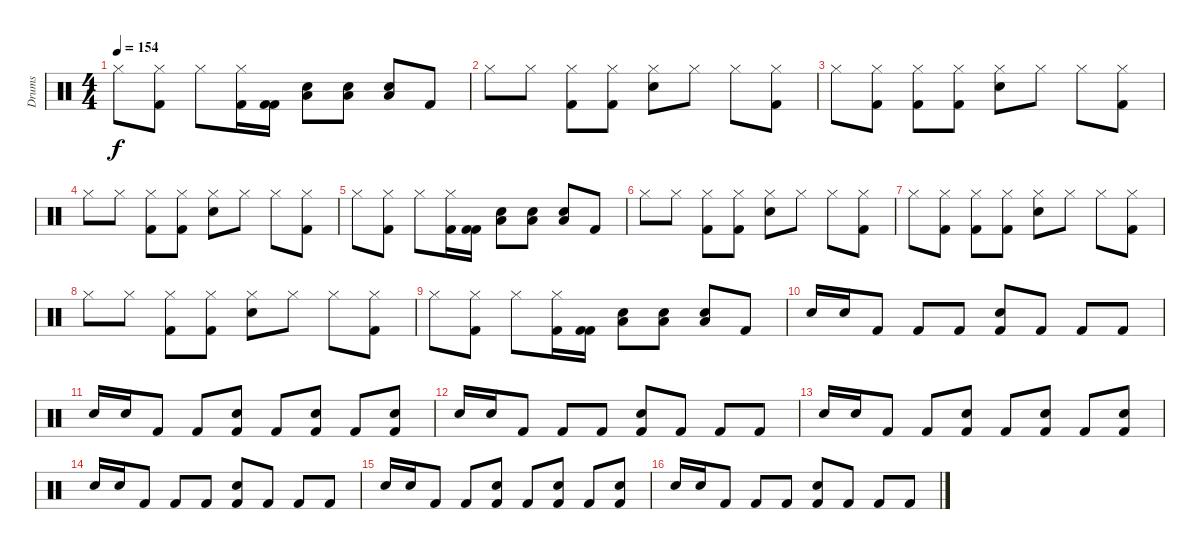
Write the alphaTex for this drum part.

\track ("Drums" "Drums") {instrument percussion}
\staff {score}
\articulation defaults
\ts (4 4)
\tempo 154
\clef neutral
\ks c "Hi-Hat (closed)".8{dy f}
("Kick (hit) 2" "Hi-Hat (closed)").8 "Hi-Hat (closed)".8 ("Kick (hit) 2" "Hi-Hat (closed)").16 ("Kick (hit) 2" "Kick (hit) 2").16 ("Snare (hit) 2" "Low Floor Tom (hit)").8 ("Snare (hit) 2" "Low Floor Tom (hit)").8 ("Snare (hit) 2" "Low Floor Tom (hit)").8 "Kick (hit) 2".8 |
"Hi-Hat (closed)".8 "Hi-Hat (closed)".8 ("Kick (hit) 2" "Hi-Hat (closed)").8 ("Kick (hit) 2" "Hi-Hat (closed)").8 ("Snare (hit) 2" "Hi-Hat (closed)").8 "Hi-Hat (closed)".8 "Hi-Hat (closed)".8 ("Kick (hit) 2" "Hi-Hat (closed)").8 |
"Hi-Hat (closed)".8 ("Kick (hit) 2" "Hi-Hat (closed)").8 ("Kick (hit) 2" "Hi-Hat (closed)").8 ("Kick (hit) 2" "Hi-Hat (closed)").8 ("Snare (hit) 2" "Hi-Hat (closed)").8 "Hi-Hat (closed)".8 "Hi-Hat (closed)".8 ("Kick (hit) 2" "Hi-Hat (closed)").8 |
"Hi-Hat (closed)".8 "Hi-Hat (closed)".8 ("Kick (hit) 2" "Hi-Hat (closed)").8 ("Kick (hit) 2" "Hi-Hat (closed)").8 ("Snare (hit) 2" "Hi-Hat (closed)").8 "Hi-Hat (closed)".8 "Hi-Hat (closed)".8 ("Kick (hit) 2" "Hi-Hat (closed)").8 |
"Hi-Hat (closed)".8 ("Kick (hit) 2" "Hi-Hat (closed)").8 "Hi-Hat (closed)".8 ("Kick (hit) 2" "Hi-Hat (closed)").16 ("Kick (hit) 2" "Kick (hit) 2").16 ("Snare (hit) 2" "Low Floor Tom (hit)").8 ("Snare (hit) 2" "Low Floor Tom (hit)").8 ("Snare (hit) 2" "Low Floor Tom (hit)").8 "Kick (hit) 2".8 |
"Hi-Hat (closed)".8 "Hi-Hat (closed)".8 ("Kick (hit) 2" "Hi-Hat (closed)").8 ("Kick (hit) 2" "Hi-Hat (closed)").8 ("Snare (hit) 2" "Hi-Hat (closed)").8 "Hi-Hat (closed)".8 "Hi-Hat (closed)".8 ("Kick (hit) 2" "Hi-Hat (closed)").8 |
"Hi-Hat (closed)".8 ("Kick (hit) 2" "Hi-Hat (closed)").8 ("Kick (hit) 2" "Hi-Hat (closed)").8 ("Kick (hit) 2" "Hi-Hat (closed)").8 ("Snare (hit) 2" "Hi-Hat (closed)").8 "Hi-Hat (closed)".8 "Hi-Hat (closed)".8 ("Kick (hit) 2" "Hi-Hat (closed)").8 |
"Hi-Hat (closed)".8 "Hi-Hat (closed)".8 ("Kick (hit) 2" "Hi-Hat (closed)").8 ("Kick (hit) 2" "Hi-Hat (closed)").8 ("Snare (hit) 2" "Hi-Hat (closed)").8 "Hi-Hat (closed)".8 "Hi-Hat (closed)".8 ("Kick (hit) 2" "Hi-Hat (closed)").8 |
"Hi-Hat (closed)".8 ("Kick (hit) 2" "Hi-Hat (closed)").8 "Hi-Hat (closed)".8 ("Kick (hit) 2" "Hi-Hat (closed)").16 ("Kick (hit) 2" "Kick (hit) 2").16 ("Snare (hit) 2" "Low Floor Tom (hit)").8 ("Snare (hit) 2" "Low Floor Tom (hit)").8 ("Snare (hit) 2" "Low Floor Tom (hit)").8 "Kick (hit) 2".8 |
"Snare (hit) 2".16 "Snare (hit) 2".16 "Kick (hit) 2".8 "Kick (hit) 2".8 "Kick (hit) 2".8 ("Kick (hit) 2" "Snare (hit) 2").8 "Kick (hit) 2".8 "Kick (hit) 2".8 "Kick (hit) 2".8 |
"Snare (hit) 2".16 "Snare (hit) 2".16 "Kick (hit) 2".8 "Kick (hit) 2".8 ("Kick (hit) 2" "Snare (hit) 2").8 "Kick (hit) 2".8 ("Kick (hit) 2" "Snare (hit) 2").8 "Kick (hit) 2".8 ("Kick (hit) 2" "Snare (hit) 2").8 |
"Snare (hit) 2".16 "Snare (hit) 2".16 "Kick (hit) 2".8 "Kick (hit) 2".8 "Kick (hit) 2".8 ("Kick (hit) 2" "Snare (hit) 2").8 "Kick (hit) 2".8 "Kick (hit) 2".8 "Kick (hit) 2".8 |
"Snare (hit) 2".16 "Snare (hit) 2".16 "Kick (hit) 2".8 "Kick (hit) 2".8 ("Kick (hit) 2" "Snare (hit) 2").8 "Kick (hit) 2".8 ("Kick (hit) 2" "Snare (hit) 2").8 "Kick (hit) 2".8 ("Kick (hit) 2" "Snare (hit) 2").8 |
"Snare (hit) 2".16 "Snare (hit) 2".16 "Kick (hit) 2".8 "Kick (hit) 2".8 "Kick (hit) 2".8 ("Kick (hit) 2" "Snare (hit) 2").8 "Kick (hit) 2".8 "Kick (hit) 2".8 "Kick (hit) 2".8 |
"Snare (hit) 2".16 "Snare (hit) 2".16 "Kick (hit) 2".8 "Kick (hit) 2".8 ("Kick (hit) 2" "Snare (hit) 2").8 "Kick (hit) 2".8 ("Kick (hit) 2" "Snare (hit) 2").8 "Kick (hit) 2".8 ("Kick (hit) 2" "Snare (hit) 2").8 |
"Snare (hit) 2".16 "Snare (hit) 2".16 "Kick (hit) 2".8 "Kick (hit) 2".8 "Kick (hit) 2".8 ("Kick (hit) 2" "Snare (hit) 2").8 "Kick (hit) 2".8 "Kick (hit) 2".8 "Kick (hit) 2".8
